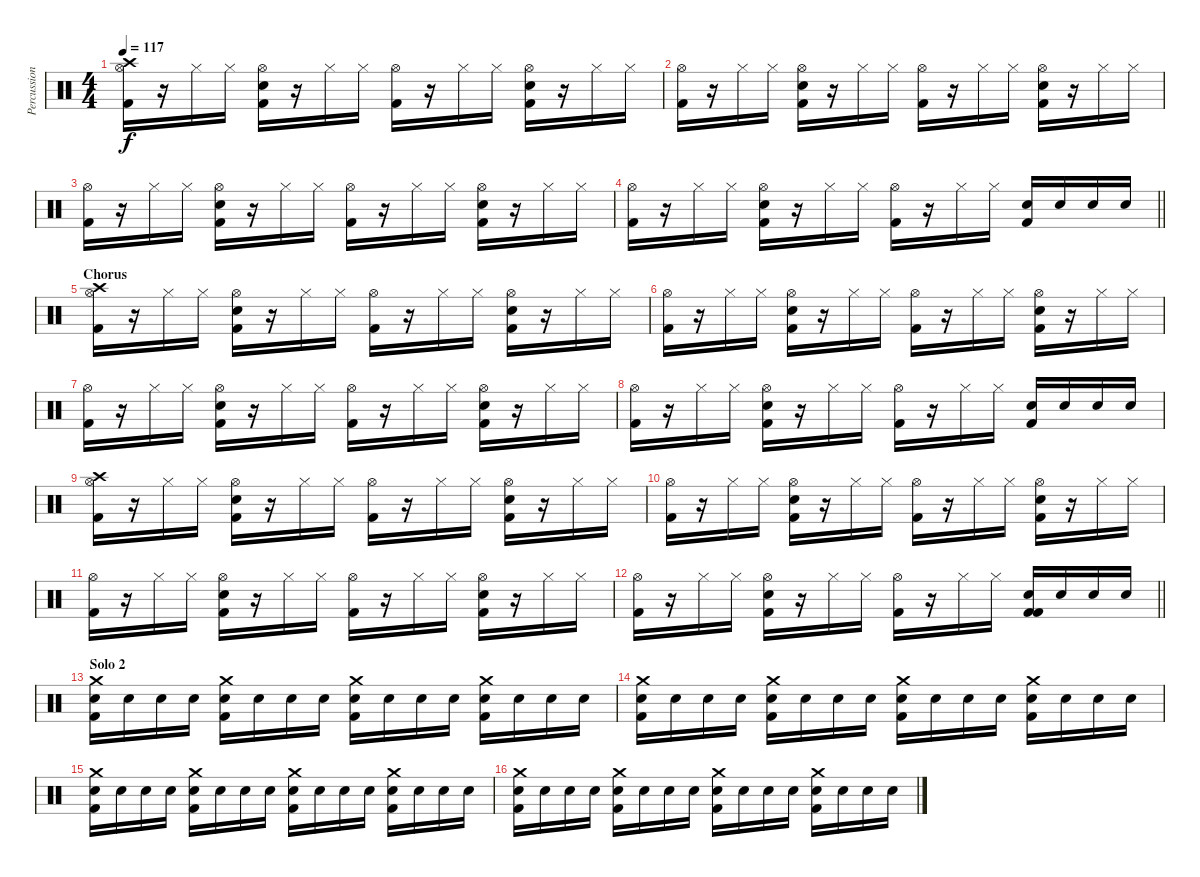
\track ("Percussion" "Percussion") {instrument percussion}
\staff {score}
\articulation defaults
\ts (4 4)
\tempo 117
\clef neutral
\ks c
("Crash high (hit)" "Hi-Hat (open)" "Kick (hit) 2").16{dy f} r.16 "Hi-Hat (closed)".16 "Hi-Hat (closed)".16 ("Hi-Hat (open)" "Snare (hit) 2" "Kick (hit) 2").16 r.16 "Hi-Hat (closed)".16 "Hi-Hat (closed)".16 ("Hi-Hat (open)" "Kick (hit) 2").16 r.16 "Hi-Hat (closed)".16 "Hi-Hat (closed)".16 ("Hi-Hat (open)" "Snare (hit) 2" "Kick (hit) 2").16 r.16 "Hi-Hat (closed)".16 "Hi-Hat (closed)".16 |
("Hi-Hat (open)" "Kick (hit) 2").16 r.16 "Hi-Hat (closed)".16 "Hi-Hat (closed)".16 ("Hi-Hat (open)" "Snare (hit) 2" "Kick (hit) 2").16 r.16 "Hi-Hat (closed)".16 "Hi-Hat (closed)".16 ("Hi-Hat (open)" "Kick (hit) 2").16 r.16 "Hi-Hat (closed)".16 "Hi-Hat (closed)".16 ("Hi-Hat (open)" "Snare (hit) 2" "Kick (hit) 2").16 r.16 "Hi-Hat (closed)".16 "Hi-Hat (closed)".16 |
("Hi-Hat (open)" "Kick (hit) 2").16 r.16 "Hi-Hat (closed)".16 "Hi-Hat (closed)".16 ("Hi-Hat (open)" "Snare (hit) 2" "Kick (hit) 2").16 r.16 "Hi-Hat (closed)".16 "Hi-Hat (closed)".16 ("Hi-Hat (open)" "Kick (hit) 2").16 r.16 "Hi-Hat (closed)".16 "Hi-Hat (closed)".16 ("Hi-Hat (open)" "Snare (hit) 2" "Kick (hit) 2").16 r.16 "Hi-Hat (closed)".16 "Hi-Hat (closed)".16 |
\barLineRight lightlight
("Hi-Hat (open)" "Kick (hit) 2").16 r.16 "Hi-Hat (closed)".16 "Hi-Hat (closed)".16 ("Hi-Hat (open)" "Snare (hit) 2" "Kick (hit) 2").16 r.16 "Hi-Hat (closed)".16 "Hi-Hat (closed)".16 ("Hi-Hat (open)" "Kick (hit) 2").16 r.16 "Hi-Hat (closed)".16 "Hi-Hat (closed)".16 ("Snare (hit) 2" "Kick (hit) 2").16 "Snare (hit) 2".16 "Snare (hit) 2".16 "Snare (hit) 2".16 |
\section ("" "Chorus")
("Crash high (hit)" "Hi-Hat (open)" "Kick (hit) 2").16 r.16 "Hi-Hat (closed)".16 "Hi-Hat (closed)".16 ("Hi-Hat (open)" "Snare (hit) 2" "Kick (hit) 2").16 r.16 "Hi-Hat (closed)".16 "Hi-Hat (closed)".16 ("Hi-Hat (open)" "Kick (hit) 2").16 r.16 "Hi-Hat (closed)".16 "Hi-Hat (closed)".16 ("Hi-Hat (open)" "Snare (hit) 2" "Kick (hit) 2").16 r.16 "Hi-Hat (closed)".16 "Hi-Hat (closed)".16 |
("Hi-Hat (open)" "Kick (hit) 2").16 r.16 "Hi-Hat (closed)".16 "Hi-Hat (closed)".16 ("Hi-Hat (open)" "Snare (hit) 2" "Kick (hit) 2").16 r.16 "Hi-Hat (closed)".16 "Hi-Hat (closed)".16 ("Hi-Hat (open)" "Kick (hit) 2").16 r.16 "Hi-Hat (closed)".16 "Hi-Hat (closed)".16 ("Hi-Hat (open)" "Snare (hit) 2" "Kick (hit) 2").16 r.16 "Hi-Hat (closed)".16 "Hi-Hat (closed)".16 |
("Hi-Hat (open)" "Kick (hit) 2").16 r.16 "Hi-Hat (closed)".16 "Hi-Hat (closed)".16 ("Hi-Hat (open)" "Snare (hit) 2" "Kick (hit) 2").16 r.16 "Hi-Hat (closed)".16 "Hi-Hat (closed)".16 ("Hi-Hat (open)" "Kick (hit) 2").16 r.16 "Hi-Hat (closed)".16 "Hi-Hat (closed)".16 ("Hi-Hat (open)" "Snare (hit) 2" "Kick (hit) 2").16 r.16 "Hi-Hat (closed)".16 "Hi-Hat (closed)".16 |
("Hi-Hat (open)" "Kick (hit) 2").16 r.16 "Hi-Hat (closed)".16 "Hi-Hat (closed)".16 ("Hi-Hat (open)" "Snare (hit) 2" "Kick (hit) 2").16 r.16 "Hi-Hat (closed)".16 "Hi-Hat (closed)".16 ("Hi-Hat (open)" "Kick (hit) 2").16 r.16 "Hi-Hat (closed)".16 "Hi-Hat (closed)".16 ("Snare (hit) 2" "Kick (hit) 2").16 "Snare (hit) 2".16 "Snare (hit) 2".16 "Snare (hit) 2".16 |
("Crash high (hit)" "Hi-Hat (open)" "Kick (hit) 2").16 r.16 "Hi-Hat (closed)".16 "Hi-Hat (closed)".16 ("Hi-Hat (open)" "Snare (hit) 2" "Kick (hit) 2").16 r.16 "Hi-Hat (closed)".16 "Hi-Hat (closed)".16 ("Hi-Hat (open)" "Kick (hit) 2").16 r.16 "Hi-Hat (closed)".16 "Hi-Hat (closed)".16 ("Hi-Hat (open)" "Snare (hit) 2" "Kick (hit) 2").16 r.16 "Hi-Hat (closed)".16 "Hi-Hat (closed)".16 |
("Hi-Hat (open)" "Kick (hit) 2").16 r.16 "Hi-Hat (closed)".16 "Hi-Hat (closed)".16 ("Hi-Hat (open)" "Snare (hit) 2" "Kick (hit) 2").16 r.16 "Hi-Hat (closed)".16 "Hi-Hat (closed)".16 ("Hi-Hat (open)" "Kick (hit) 2").16 r.16 "Hi-Hat (closed)".16 "Hi-Hat (closed)".16 ("Hi-Hat (open)" "Snare (hit) 2" "Kick (hit) 2").16 r.16 "Hi-Hat (closed)".16 "Hi-Hat (closed)".16 |
("Hi-Hat (open)" "Kick (hit) 2").16 r.16 "Hi-Hat (closed)".16 "Hi-Hat (closed)".16 ("Hi-Hat (open)" "Snare (hit) 2" "Kick (hit) 2").16 r.16 "Hi-Hat (closed)".16 "Hi-Hat (closed)".16 ("Hi-Hat (open)" "Kick (hit) 2").16 r.16 "Hi-Hat (closed)".16 "Hi-Hat (closed)".16 ("Hi-Hat (open)" "Snare (hit) 2" "Kick (hit) 2").16 r.16 "Hi-Hat (closed)".16 "Hi-Hat (closed)".16 |
\barLineRight lightlight
("Hi-Hat (open)" "Kick (hit) 2").16 r.16 "Hi-Hat (closed)".16 "Hi-Hat (closed)".16 ("Hi-Hat (open)" "Snare (hit) 2" "Kick (hit) 2").16 r.16 "Hi-Hat (closed)".16 "Hi-Hat (closed)".16 ("Hi-Hat (open)" "Kick (hit) 2").16 r.16 "Hi-Hat (closed)".16 "Hi-Hat (closed)".16 ("Kick (hit) 2" "Snare (hit) 2" "Kick (hit) 2").16 "Snare (hit) 2".16 "Snare (hit) 2".16 "Snare (hit) 2".16 |
\section ("" "Solo 2")
("Crash medium (hit)" "Snare (hit) 2" "Kick (hit) 2").16 "Snare (hit) 2".16 "Snare (hit) 2".16 "Snare (hit) 2".16 ("Crash medium (hit)" "Snare (hit) 2" "Kick (hit) 2").16 "Snare (hit) 2".16 "Snare (hit) 2".16 "Snare (hit) 2".16 ("Crash medium (hit)" "Snare (hit) 2" "Kick (hit) 2").16 "Snare (hit) 2".16 "Snare (hit) 2".16 "Snare (hit) 2".16 ("Crash medium (hit)" "Snare (hit) 2" "Kick (hit) 2").16 "Snare (hit) 2".16 "Snare (hit) 2".16 "Snare (hit) 2".16 |
("Crash medium (hit)" "Snare (hit) 2" "Kick (hit) 2").16 "Snare (hit) 2".16 "Snare (hit) 2".16 "Snare (hit) 2".16 ("Crash medium (hit)" "Snare (hit) 2" "Kick (hit) 2").16 "Snare (hit) 2".16 "Snare (hit) 2".16 "Snare (hit) 2".16 ("Crash medium (hit)" "Snare (hit) 2" "Kick (hit) 2").16 "Snare (hit) 2".16 "Snare (hit) 2".16 "Snare (hit) 2".16 ("Crash medium (hit)" "Snare (hit) 2" "Kick (hit) 2").16 "Snare (hit) 2".16 "Snare (hit) 2".16 "Snare (hit) 2".16 |
("Crash medium (hit)" "Snare (hit) 2" "Kick (hit) 2").16 "Snare (hit) 2".16 "Snare (hit) 2".16 "Snare (hit) 2".16 ("Crash medium (hit)" "Snare (hit) 2" "Kick (hit) 2").16 "Snare (hit) 2".16 "Snare (hit) 2".16 "Snare (hit) 2".16 ("Crash medium (hit)" "Snare (hit) 2" "Kick (hit) 2").16 "Snare (hit) 2".16 "Snare (hit) 2".16 "Snare (hit) 2".16 ("Crash medium (hit)" "Snare (hit) 2" "Kick (hit) 2").16 "Snare (hit) 2".16 "Snare (hit) 2".16 "Snare (hit) 2".16 |
("Crash medium (hit)" "Snare (hit) 2" "Kick (hit) 2").16 "Snare (hit) 2".16 "Snare (hit) 2".16 "Snare (hit) 2".16 ("Crash medium (hit)" "Snare (hit) 2" "Kick (hit) 2").16 "Snare (hit) 2".16 "Snare (hit) 2".16 "Snare (hit) 2".16 ("Crash medium (hit)" "Snare (hit) 2" "Kick (hit) 2").16 "Snare (hit) 2".16 "Snare (hit) 2".16 "Snare (hit) 2".16 ("Crash medium (hit)" "Snare (hit) 2" "Kick (hit) 2").16 "Snare (hit) 2".16 "Snare (hit) 2".16 "Snare (hit) 2".16
